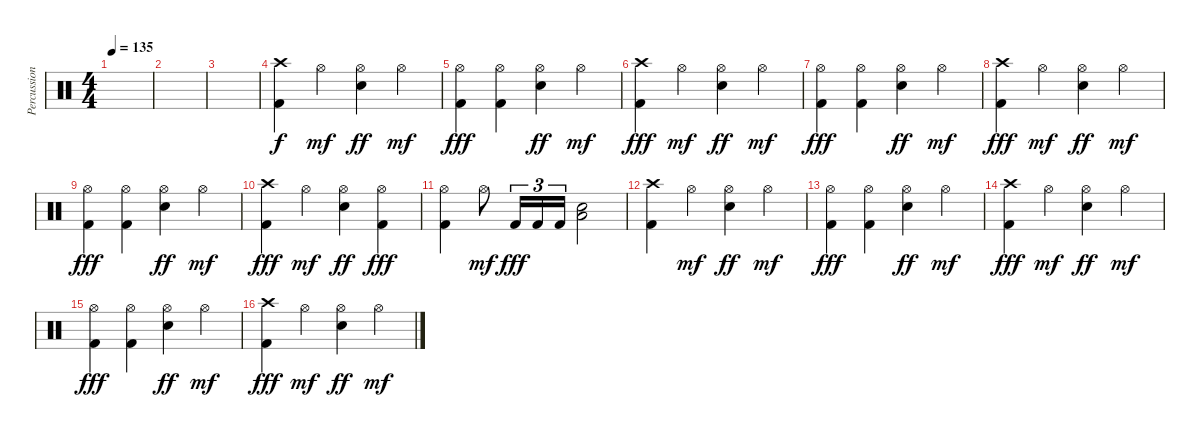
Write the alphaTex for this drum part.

\track ("Percussion" "Percussion") {instrument percussion}
\staff {score}
\articulation defaults
\ts (4 4)
\tempo 135
\clef neutral
\ks c
|
|
|
("Crash high (hit)" "Kick (hit) 2").4 "Hi-Hat (open)".4{dy mf} ("Hi-Hat (open)" "Snare (hit) 2").4{dy ff} "Hi-Hat (open)".4{dy mf} |
("Hi-Hat (open)" "Kick (hit) 2").4{dy fff} ("Hi-Hat (open)" "Kick (hit) 2").4 ("Hi-Hat (open)" "Snare (hit) 2").4{dy ff} "Hi-Hat (open)".4{dy mf} |
("Crash high (hit)" "Kick (hit) 2").4{dy fff} "Hi-Hat (open)".4{dy mf} ("Hi-Hat (open)" "Snare (hit) 2").4{dy ff} "Hi-Hat (open)".4{dy mf} |
("Hi-Hat (open)" "Kick (hit) 2").4{dy fff} ("Hi-Hat (open)" "Kick (hit) 2").4 ("Hi-Hat (open)" "Snare (hit) 2").4{dy ff} "Hi-Hat (open)".4{dy mf} |
("Crash high (hit)" "Kick (hit) 2").4{dy fff} "Hi-Hat (open)".4{dy mf} ("Hi-Hat (open)" "Snare (hit) 2").4{dy ff} "Hi-Hat (open)".4{dy mf} |
("Hi-Hat (open)" "Kick (hit) 2").4{dy fff} ("Hi-Hat (open)" "Kick (hit) 2").4 ("Hi-Hat (open)" "Snare (hit) 2").4{dy ff} "Hi-Hat (open)".4{dy mf} |
("Crash high (hit)" "Kick (hit) 2").4{dy fff} "Hi-Hat (open)".4{dy mf} ("Hi-Hat (open)" "Snare (hit) 2").4{dy ff} ("Hi-Hat (open)" "Kick (hit) 2").4{dy fff} |
("Hi-Hat (open)" "Kick (hit) 2").4 "Hi-Hat (open)".8{dy mf} "Kick (hit) 2".16{tu (3 2) dy fff} "Kick (hit) 2".16{tu (3 2)} "Kick (hit) 2".16{tu (3 2)} ("Snare (hit) 2" "Low Floor Tom (hit)").2 |
("Crash high (hit)" "Kick (hit) 2").4 "Hi-Hat (open)".4{dy mf} ("Hi-Hat (open)" "Snare (hit) 2").4{dy ff} "Hi-Hat (open)".4{dy mf} |
("Hi-Hat (open)" "Kick (hit) 2").4{dy fff} ("Hi-Hat (open)" "Kick (hit) 2").4 ("Hi-Hat (open)" "Snare (hit) 2").4{dy ff} "Hi-Hat (open)".4{dy mf} |
("Crash high (hit)" "Kick (hit) 2").4{dy fff} "Hi-Hat (open)".4{dy mf} ("Hi-Hat (open)" "Snare (hit) 2").4{dy ff} "Hi-Hat (open)".4{dy mf} |
("Hi-Hat (open)" "Kick (hit) 2").4{dy fff} ("Hi-Hat (open)" "Kick (hit) 2").4 ("Hi-Hat (open)" "Snare (hit) 2").4{dy ff} "Hi-Hat (open)".4{dy mf} |
("Crash high (hit)" "Kick (hit) 2").4{dy fff} "Hi-Hat (open)".4{dy mf} ("Hi-Hat (open)" "Snare (hit) 2").4{dy ff} "Hi-Hat (open)".4{dy mf}
